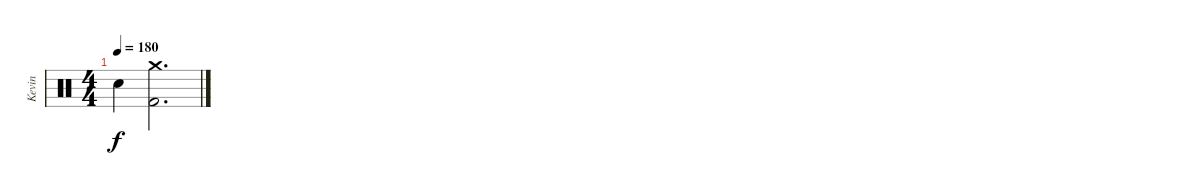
\track ("Kevin" "Kevin") {instrument percussion}
\staff {score}
\articulation defaults
\ts (4 4)
\tempo 180
\clef neutral
\ks c "Electric Snare (hit)".4{dy f}
("Crash medium (hit)" "Kick (hit) 2").2{d}
